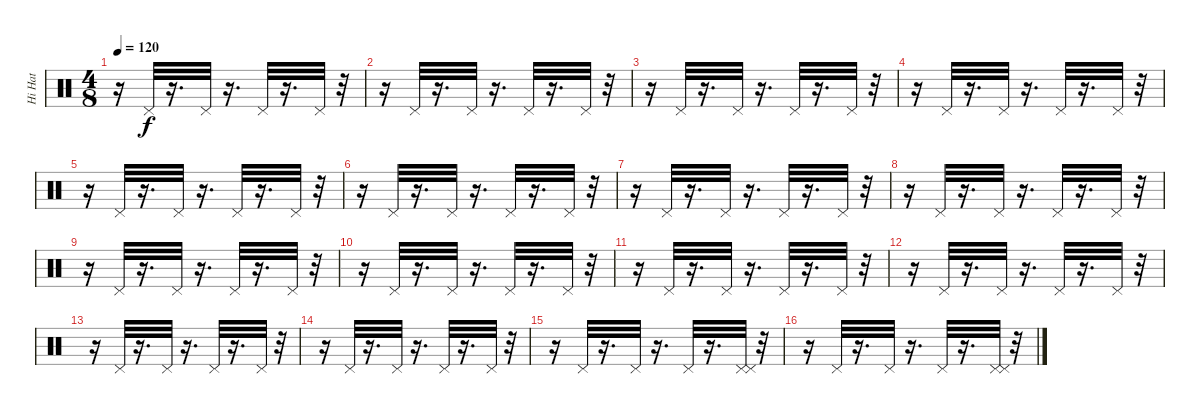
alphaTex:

\track ("Hi Hat" "Hi Hat") {instrument percussion}
\staff {score}
\articulation defaults
\ts (4 8)
\tempo 120
\clef neutral
\ks c
r.16{dy f} "Pedal Hi-Hat (hit)".32 r.16{d} "Pedal Hi-Hat (hit)".32 r.16{d} "Pedal Hi-Hat (hit)".32 r.16{d} "Pedal Hi-Hat (hit)".32 r.32 |
r.16 "Pedal Hi-Hat (hit)".32 r.16{d} "Pedal Hi-Hat (hit)".32 r.16{d} "Pedal Hi-Hat (hit)".32 r.16{d} "Pedal Hi-Hat (hit)".32 r.32 |
r.16 "Pedal Hi-Hat (hit)".32 r.16{d} "Pedal Hi-Hat (hit)".32 r.16{d} "Pedal Hi-Hat (hit)".32 r.16{d} "Pedal Hi-Hat (hit)".32 r.32 |
r.16 "Pedal Hi-Hat (hit)".32 r.16{d} "Pedal Hi-Hat (hit)".32 r.16{d} "Pedal Hi-Hat (hit)".32 r.16{d} "Pedal Hi-Hat (hit)".32 r.32 |
r.16 "Pedal Hi-Hat (hit)".32 r.16{d} "Pedal Hi-Hat (hit)".32 r.16{d} "Pedal Hi-Hat (hit)".32 r.16{d} "Pedal Hi-Hat (hit)".32 r.32 |
r.16 "Pedal Hi-Hat (hit)".32 r.16{d} "Pedal Hi-Hat (hit)".32 r.16{d} "Pedal Hi-Hat (hit)".32 r.16{d} "Pedal Hi-Hat (hit)".32 r.32 |
r.16 "Pedal Hi-Hat (hit)".32 r.16{d} "Pedal Hi-Hat (hit)".32 r.16{d} "Pedal Hi-Hat (hit)".32 r.16{d} "Pedal Hi-Hat (hit)".32 r.32 |
r.16 "Pedal Hi-Hat (hit)".32 r.16{d} "Pedal Hi-Hat (hit)".32 r.16{d} "Pedal Hi-Hat (hit)".32 r.16{d} "Pedal Hi-Hat (hit)".32 r.32 |
r.16 "Pedal Hi-Hat (hit)".32 r.16{d} "Pedal Hi-Hat (hit)".32 r.16{d} "Pedal Hi-Hat (hit)".32 r.16{d} "Pedal Hi-Hat (hit)".32 r.32 |
r.16 "Pedal Hi-Hat (hit)".32 r.16{d} "Pedal Hi-Hat (hit)".32 r.16{d} "Pedal Hi-Hat (hit)".32 r.16{d} "Pedal Hi-Hat (hit)".32 r.32 |
r.16 "Pedal Hi-Hat (hit)".32 r.16{d} "Pedal Hi-Hat (hit)".32 r.16{d} "Pedal Hi-Hat (hit)".32 r.16{d} "Pedal Hi-Hat (hit)".32 r.32 |
r.16 "Pedal Hi-Hat (hit)".32 r.16{d} "Pedal Hi-Hat (hit)".32 r.16{d} "Pedal Hi-Hat (hit)".32 r.16{d} "Pedal Hi-Hat (hit)".32 r.32 |
r.16 "Pedal Hi-Hat (hit)".32 r.16{d} "Pedal Hi-Hat (hit)".32 r.16{d} "Pedal Hi-Hat (hit)".32 r.16{d} "Pedal Hi-Hat (hit)".32 r.32 |
r.16 "Pedal Hi-Hat (hit)".32 r.16{d} "Pedal Hi-Hat (hit)".32 r.16{d} "Pedal Hi-Hat (hit)".32 r.16{d} "Pedal Hi-Hat (hit)".32 r.32 |
r.16 "Pedal Hi-Hat (hit)".32 r.16{d} "Pedal Hi-Hat (hit)".32 r.16{d} "Pedal Hi-Hat (hit)".32 r.16{d} ("Pedal Hi-Hat (hit)" "Pedal Hi-Hat (hit)").32 r.32 |
r.16 "Pedal Hi-Hat (hit)".32 r.16{d} "Pedal Hi-Hat (hit)".32 r.16{d} "Pedal Hi-Hat (hit)".32 r.16{d} ("Pedal Hi-Hat (hit)" "Pedal Hi-Hat (hit)").32 r.32
